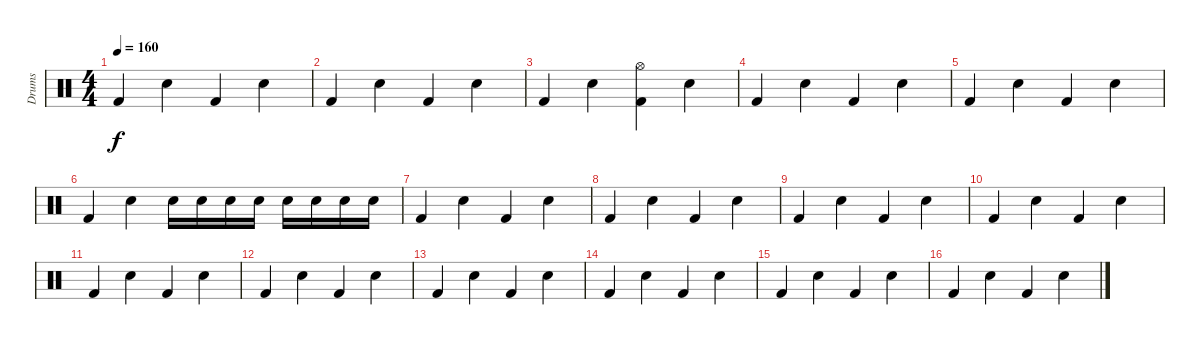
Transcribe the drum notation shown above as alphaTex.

\track ("Drums" "Drums") {instrument percussion}
\staff {score}
\articulation defaults
\ts (4 4)
\tempo 160
\clef neutral
\ks c "Kick (hit) 2".4{dy f} "Snare (hit) 2".4 "Kick (hit) 2".4 "Snare (hit) 2".4
|
"Kick (hit) 2".4 "Snare (hit) 2".4 "Kick (hit) 2".4 "Snare (hit) 2".4 |
"Kick (hit) 2".4 "Snare (hit) 2".4 ("Kick (hit) 2" "Hi-Hat (open)").4 "Snare (hit) 2".4 |
"Kick (hit) 2".4 "Snare (hit) 2".4 "Kick (hit) 2".4 "Snare (hit) 2".4 |
"Kick (hit) 2".4 "Snare (hit) 2".4 "Kick (hit) 2".4 "Snare (hit) 2".4 |
"Kick (hit) 2".4 "Snare (hit) 2".4 "Snare (hit) 2".16 "Snare (hit) 2".16 "Snare (hit) 2".16 "Snare (hit) 2".16 "Electric Snare (hit)".16 "Electric Snare (hit)".16 "Electric Snare (hit)".16 "Electric Snare (hit)".16 |
"Kick (hit) 2".4 "Snare (hit) 2".4 "Kick (hit) 2".4 "Snare (hit) 2".4 |
"Kick (hit) 2".4 "Snare (hit) 2".4 "Kick (hit) 2".4 "Snare (hit) 2".4 |
"Kick (hit) 2".4 "Snare (hit) 2".4 "Kick (hit) 2".4 "Snare (hit) 2".4 |
"Kick (hit) 2".4 "Snare (hit) 2".4 "Kick (hit) 2".4 "Snare (hit) 2".4 |
"Kick (hit) 2".4 "Snare (hit) 2".4 "Kick (hit) 2".4 "Snare (hit) 2".4 |
"Kick (hit) 2".4 "Snare (hit) 2".4 "Kick (hit) 2".4 "Snare (hit) 2".4 |
"Kick (hit) 2".4 "Snare (hit) 2".4 "Kick (hit) 2".4 "Snare (hit) 2".4 |
"Kick (hit) 2".4 "Snare (hit) 2".4 "Kick (hit) 2".4 "Snare (hit) 2".4 |
"Kick (hit) 2".4 "Snare (hit) 2".4 "Kick (hit) 2".4 "Snare (hit) 2".4 |
"Kick (hit) 2".4 "Snare (hit) 2".4 "Kick (hit) 2".4 "Snare (hit) 2".4
